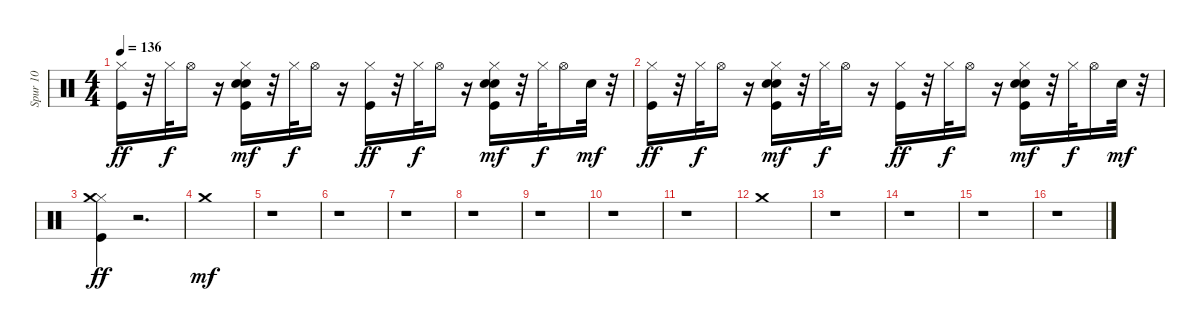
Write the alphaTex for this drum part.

\track ("Spur 10" "Spur 10") {instrument percussion}
\staff {score}
\articulation defaults
\ts (4 4)
\tempo 136
\clef neutral
\ks c
("Kick (hit)" "Hi-Hat (closed)").16{dy ff} r.32 "Hi-Hat (closed)".32{dy f} "Hi-Hat (open)".16 r.16 ("Kick (hit)" "Snare (hit) 2" "Hi-Hat (closed)" "Hand Clap (hit)").16{dy mf} r.32 "Hi-Hat (closed)".32{dy f} "Hi-Hat (open)".16 r.16 ("Kick (hit)" "Hi-Hat (closed)").16{dy ff} r.32 "Hi-Hat (closed)".32{dy f} "Hi-Hat (open)".16 r.16 ("Kick (hit)" "Snare (hit) 2" "Hi-Hat (closed)" "Hand Clap (hit)").16{dy mf} r.32 "Hi-Hat (closed)".32{dy f} "Hi-Hat (open)".16 "Snare (hit) 2".32{dy mf} r.32 |
("Kick (hit)" "Hi-Hat (closed)").16{dy ff} r.32 "Hi-Hat (closed)".32{dy f} "Hi-Hat (open)".16 r.16 ("Kick (hit)" "Snare (hit) 2" "Hi-Hat (closed)" "Hand Clap (hit)").16{dy mf} r.32 "Hi-Hat (closed)".32{dy f} "Hi-Hat (open)".16 r.16 ("Kick (hit)" "Hi-Hat (closed)").16{dy ff} r.32 "Hi-Hat (closed)".32{dy f} "Hi-Hat (open)".16 r.16 ("Kick (hit)" "Snare (hit) 2" "Hi-Hat (closed)" "Hand Clap (hit)").16{dy mf} r.32 "Hi-Hat (closed)".32{dy f} "Hi-Hat (open)".16 "Snare (hit) 2".32{dy mf} r.32 |
("Kick (hit)" "Hi-Hat (closed)" "Crash medium (hit)").4{dy ff} r.2{d} |
"Crash medium (hit)".1{dy mf} |
r.1 |
r.1 |
r.1 |
r.1 |
r.1 |
r.1 |
r.1 |
"Crash medium (hit)".1 |
r.1 |
r.1 |
r.1 |
r.1
